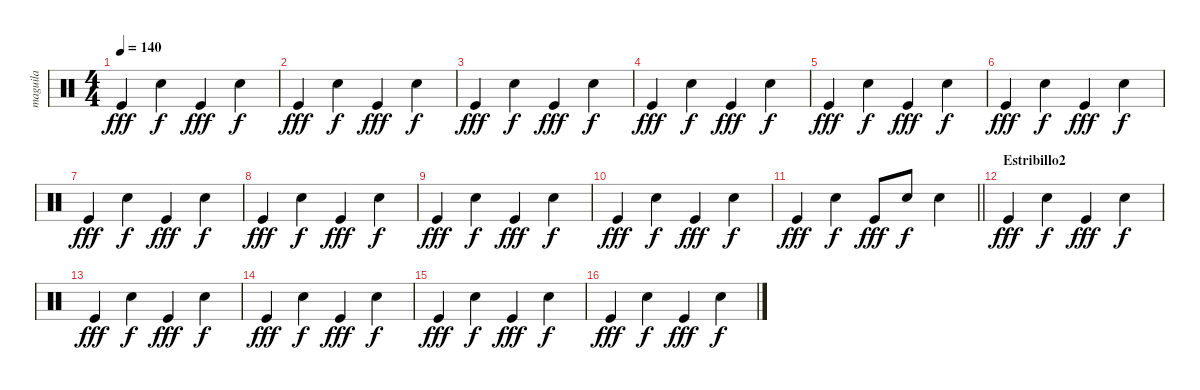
\track ("maguila" "maguila") {instrument percussion}
\staff {score}
\articulation defaults
\ts (4 4)
\tempo 140
\clef neutral
\ks c "Kick (hit)".4{dy fff} "Snare (hit) 2".4{dy f} "Kick (hit)".4{dy fff} "Snare (hit) 2".4{dy f}
|
"Kick (hit)".4{dy fff} "Snare (hit) 2".4{dy f} "Kick (hit)".4{dy fff} "Snare (hit) 2".4{dy f} |
"Kick (hit)".4{dy fff} "Snare (hit) 2".4{dy f} "Kick (hit)".4{dy fff} "Snare (hit) 2".4{dy f} |
"Kick (hit)".4{dy fff} "Snare (hit) 2".4{dy f} "Kick (hit)".4{dy fff} "Snare (hit) 2".4{dy f} |
"Kick (hit)".4{dy fff} "Snare (hit) 2".4{dy f} "Kick (hit)".4{dy fff} "Snare (hit) 2".4{dy f} |
"Kick (hit)".4{dy fff} "Snare (hit) 2".4{dy f} "Kick (hit)".4{dy fff} "Snare (hit) 2".4{dy f} |
"Kick (hit)".4{dy fff} "Snare (hit) 2".4{dy f} "Kick (hit)".4{dy fff} "Snare (hit) 2".4{dy f} |
"Kick (hit)".4{dy fff} "Snare (hit) 2".4{dy f} "Kick (hit)".4{dy fff} "Snare (hit) 2".4{dy f} |
"Kick (hit)".4{dy fff} "Snare (hit) 2".4{dy f} "Kick (hit)".4{dy fff} "Snare (hit) 2".4{dy f} |
"Kick (hit)".4{dy fff} "Snare (hit) 2".4{dy f} "Kick (hit)".4{dy fff} "Snare (hit) 2".4{dy f} |
\barLineRight lightlight "Kick (hit)".4{dy fff} "Snare (hit) 2".4{dy f} "Kick (hit)".8{dy fff} "Snare (hit) 2".8{dy f} "Snare (hit) 2".4
|
\section ("" "Estribillo2")
"Kick (hit)".4{dy fff} "Snare (hit) 2".4{dy f} "Kick (hit)".4{dy fff} "Snare (hit) 2".4{dy f} |
"Kick (hit)".4{dy fff} "Snare (hit) 2".4{dy f} "Kick (hit)".4{dy fff} "Snare (hit) 2".4{dy f} |
"Kick (hit)".4{dy fff} "Snare (hit) 2".4{dy f} "Kick (hit)".4{dy fff} "Snare (hit) 2".4{dy f} |
"Kick (hit)".4{dy fff} "Snare (hit) 2".4{dy f} "Kick (hit)".4{dy fff} "Snare (hit) 2".4{dy f} |
"Kick (hit)".4{dy fff} "Snare (hit) 2".4{dy f} "Kick (hit)".4{dy fff} "Snare (hit) 2".4{dy f}
